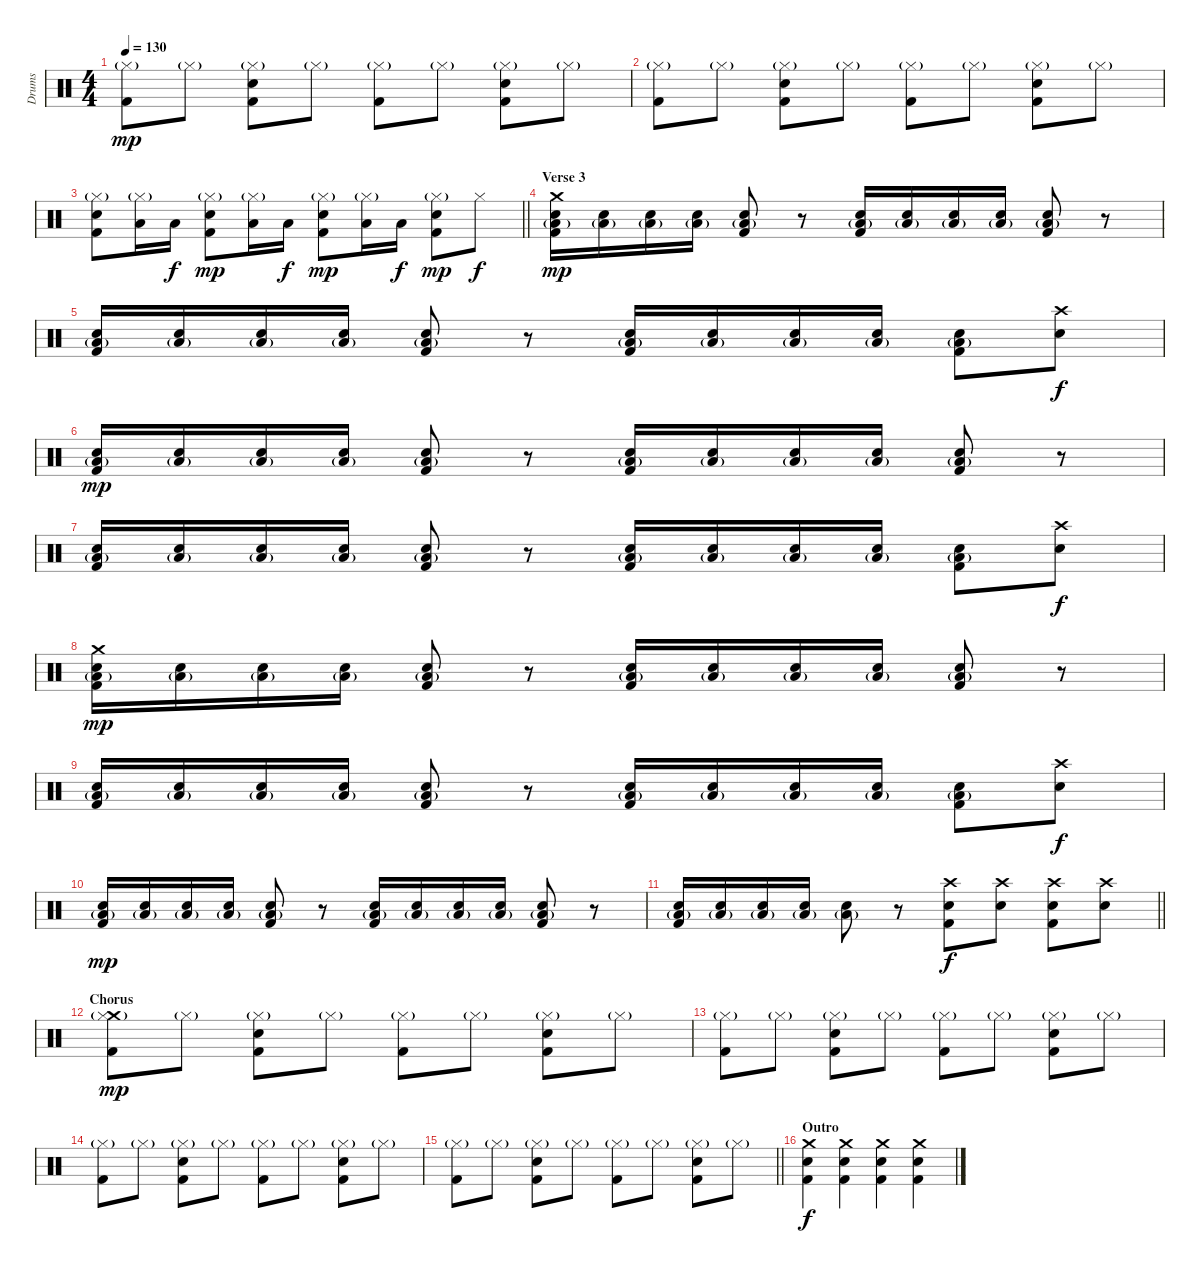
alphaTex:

\track ("Drums" "Drums") {instrument percussion}
\staff {score}
\articulation defaults
\ts (4 4)
\tempo 130
\clef neutral
\ks c
("Hi-Hat (closed)"{g} "Kick (hit) 2").8{dy mp} "Hi-Hat (closed)"{g}.8 ("Hi-Hat (closed)"{g} "Electric Snare (hit)" "Kick (hit) 2").8 "Hi-Hat (closed)"{g}.8 ("Hi-Hat (closed)"{g} "Kick (hit) 2").8 "Hi-Hat (closed)"{g}.8 ("Hi-Hat (closed)"{g} "Electric Snare (hit)" "Kick (hit) 2").8 "Hi-Hat (closed)"{g}.8 |
("Hi-Hat (closed)"{g} "Kick (hit) 2").8 "Hi-Hat (closed)"{g}.8 ("Hi-Hat (closed)"{g} "Electric Snare (hit)" "Kick (hit) 2").8 "Hi-Hat (closed)"{g}.8 ("Hi-Hat (closed)"{g} "Kick (hit) 2").8 "Hi-Hat (closed)"{g}.8 ("Hi-Hat (closed)"{g} "Electric Snare (hit)" "Kick (hit) 2").8 "Hi-Hat (closed)"{g}.8 |
\barLineRight lightlight
("Hi-Hat (closed)"{g} "Electric Snare (hit)" "Kick (hit) 2").8 ("Hi-Hat (closed)"{g} "Low Floor Tom (hit)").16 "Low Floor Tom (hit)".16{dy f} ("Hi-Hat (closed)"{g} "Electric Snare (hit)" "Kick (hit) 2").8{dy mp} ("Hi-Hat (closed)"{g} "Low Floor Tom (hit)").16 "Low Floor Tom (hit)".16{dy f} ("Hi-Hat (closed)"{g} "Electric Snare (hit)" "Kick (hit) 2").8{dy mp} ("Hi-Hat (closed)"{g} "Low Floor Tom (hit)").16 "Low Floor Tom (hit)".16{dy f} ("Hi-Hat (closed)"{g} "Electric Snare (hit)" "Kick (hit) 2").8{dy mp} "Hi-Hat (closed)".8{dy f} |
\section ("" "Verse 3")
("Crash medium (hit)" "Low Floor Tom (hit)"{g} "Electric Snare (hit)" "Kick (hit) 2").16{dy mp} ("Low Floor Tom (hit)"{g} "Electric Snare (hit)").16 ("Low Floor Tom (hit)"{g} "Electric Snare (hit)").16 ("Low Floor Tom (hit)"{g} "Electric Snare (hit)").16 ("Low Floor Tom (hit)"{g} "Electric Snare (hit)" "Kick (hit) 2").8 r.8 ("Low Floor Tom (hit)"{g} "Electric Snare (hit)" "Kick (hit) 2").16 ("Low Floor Tom (hit)"{g} "Electric Snare (hit)").16 ("Low Floor Tom (hit)"{g} "Electric Snare (hit)").16 ("Low Floor Tom (hit)"{g} "Electric Snare (hit)").16 ("Low Floor Tom (hit)"{g} "Electric Snare (hit)" "Kick (hit) 2").8 r.8 |
("Low Floor Tom (hit)"{g} "Electric Snare (hit)" "Kick (hit) 2").16 ("Low Floor Tom (hit)"{g} "Electric Snare (hit)").16 ("Low Floor Tom (hit)"{g} "Electric Snare (hit)").16 ("Low Floor Tom (hit)"{g} "Electric Snare (hit)").16 ("Low Floor Tom (hit)"{g} "Electric Snare (hit)" "Kick (hit) 2").8 r.8 ("Low Floor Tom (hit)"{g} "Electric Snare (hit)" "Kick (hit) 2").16 ("Low Floor Tom (hit)"{g} "Electric Snare (hit)").16 ("Low Floor Tom (hit)"{g} "Electric Snare (hit)").16 ("Low Floor Tom (hit)"{g} "Electric Snare (hit)").16 ("Low Floor Tom (hit)"{g} "Electric Snare (hit)" "Kick (hit) 2").8 ("Crash high (hit)" "Electric Snare (hit)").8{dy f} |
("Low Floor Tom (hit)"{g} "Electric Snare (hit)" "Kick (hit) 2").16{dy mp} ("Low Floor Tom (hit)"{g} "Electric Snare (hit)").16 ("Low Floor Tom (hit)"{g} "Electric Snare (hit)").16 ("Low Floor Tom (hit)"{g} "Electric Snare (hit)").16 ("Low Floor Tom (hit)"{g} "Electric Snare (hit)" "Kick (hit) 2").8 r.8 ("Low Floor Tom (hit)"{g} "Electric Snare (hit)" "Kick (hit) 2").16 ("Low Floor Tom (hit)"{g} "Electric Snare (hit)").16 ("Low Floor Tom (hit)"{g} "Electric Snare (hit)").16 ("Low Floor Tom (hit)"{g} "Electric Snare (hit)").16 ("Low Floor Tom (hit)"{g} "Electric Snare (hit)" "Kick (hit) 2").8 r.8 |
("Low Floor Tom (hit)"{g} "Electric Snare (hit)" "Kick (hit) 2").16 ("Low Floor Tom (hit)"{g} "Electric Snare (hit)").16 ("Low Floor Tom (hit)"{g} "Electric Snare (hit)").16 ("Low Floor Tom (hit)"{g} "Electric Snare (hit)").16 ("Low Floor Tom (hit)"{g} "Electric Snare (hit)" "Kick (hit) 2").8 r.8 ("Low Floor Tom (hit)"{g} "Electric Snare (hit)" "Kick (hit) 2").16 ("Low Floor Tom (hit)"{g} "Electric Snare (hit)").16 ("Low Floor Tom (hit)"{g} "Electric Snare (hit)").16 ("Low Floor Tom (hit)"{g} "Electric Snare (hit)").16 ("Low Floor Tom (hit)"{g} "Electric Snare (hit)" "Kick (hit) 2").8 ("Crash high (hit)" "Electric Snare (hit)").8{dy f} |
("Crash medium (hit)" "Low Floor Tom (hit)"{g} "Electric Snare (hit)" "Kick (hit) 2").16{dy mp} ("Low Floor Tom (hit)"{g} "Electric Snare (hit)").16 ("Low Floor Tom (hit)"{g} "Electric Snare (hit)").16 ("Low Floor Tom (hit)"{g} "Electric Snare (hit)").16 ("Low Floor Tom (hit)"{g} "Electric Snare (hit)" "Kick (hit) 2").8 r.8 ("Low Floor Tom (hit)"{g} "Electric Snare (hit)" "Kick (hit) 2").16 ("Low Floor Tom (hit)"{g} "Electric Snare (hit)").16 ("Low Floor Tom (hit)"{g} "Electric Snare (hit)").16 ("Low Floor Tom (hit)"{g} "Electric Snare (hit)").16 ("Low Floor Tom (hit)"{g} "Electric Snare (hit)" "Kick (hit) 2").8 r.8 |
("Low Floor Tom (hit)"{g} "Electric Snare (hit)" "Kick (hit) 2").16 ("Low Floor Tom (hit)"{g} "Electric Snare (hit)").16 ("Low Floor Tom (hit)"{g} "Electric Snare (hit)").16 ("Low Floor Tom (hit)"{g} "Electric Snare (hit)").16 ("Low Floor Tom (hit)"{g} "Electric Snare (hit)" "Kick (hit) 2").8 r.8 ("Low Floor Tom (hit)"{g} "Electric Snare (hit)" "Kick (hit) 2").16 ("Low Floor Tom (hit)"{g} "Electric Snare (hit)").16 ("Low Floor Tom (hit)"{g} "Electric Snare (hit)").16 ("Low Floor Tom (hit)"{g} "Electric Snare (hit)").16 ("Low Floor Tom (hit)"{g} "Electric Snare (hit)" "Kick (hit) 2").8 ("Crash high (hit)" "Electric Snare (hit)").8{dy f} |
("Low Floor Tom (hit)"{g} "Electric Snare (hit)" "Kick (hit) 2").16{dy mp} ("Low Floor Tom (hit)"{g} "Electric Snare (hit)").16 ("Low Floor Tom (hit)"{g} "Electric Snare (hit)").16 ("Low Floor Tom (hit)"{g} "Electric Snare (hit)").16 ("Low Floor Tom (hit)"{g} "Electric Snare (hit)" "Kick (hit) 2").8 r.8 ("Low Floor Tom (hit)"{g} "Electric Snare (hit)" "Kick (hit) 2").16 ("Low Floor Tom (hit)"{g} "Electric Snare (hit)").16 ("Low Floor Tom (hit)"{g} "Electric Snare (hit)").16 ("Low Floor Tom (hit)"{g} "Electric Snare (hit)").16 ("Low Floor Tom (hit)"{g} "Electric Snare (hit)" "Kick (hit) 2").8 r.8 |
\barLineRight lightlight
("Low Floor Tom (hit)"{g} "Electric Snare (hit)" "Kick (hit) 2").16 ("Low Floor Tom (hit)"{g} "Electric Snare (hit)").16 ("Low Floor Tom (hit)"{g} "Electric Snare (hit)").16 ("Low Floor Tom (hit)"{g} "Electric Snare (hit)").16 ("Low Floor Tom (hit)"{g} "Electric Snare (hit)").8 r.8 ("Crash high (hit)" "Electric Snare (hit)" "Kick (hit) 2").8{dy f} ("Crash high (hit)" "Electric Snare (hit)").8 ("Crash high (hit)" "Electric Snare (hit)" "Kick (hit) 2").8 ("Crash high (hit)" "Electric Snare (hit)").8 |
\section ("" "Chorus")
("Crash medium (hit)" "Hi-Hat (closed)"{g} "Kick (hit) 2").8{dy mp} "Hi-Hat (closed)"{g}.8 ("Hi-Hat (closed)"{g} "Electric Snare (hit)" "Kick (hit) 2").8 "Hi-Hat (closed)"{g}.8 ("Hi-Hat (closed)"{g} "Kick (hit) 2").8 "Hi-Hat (closed)"{g}.8 ("Hi-Hat (closed)"{g} "Electric Snare (hit)" "Kick (hit) 2").8 "Hi-Hat (closed)"{g}.8 |
("Hi-Hat (closed)"{g} "Kick (hit) 2").8 "Hi-Hat (closed)"{g}.8 ("Hi-Hat (closed)"{g} "Electric Snare (hit)" "Kick (hit) 2").8 "Hi-Hat (closed)"{g}.8 ("Hi-Hat (closed)"{g} "Kick (hit) 2").8 "Hi-Hat (closed)"{g}.8 ("Hi-Hat (closed)"{g} "Electric Snare (hit)" "Kick (hit) 2").8 "Hi-Hat (closed)"{g}.8 |
("Hi-Hat (closed)"{g} "Kick (hit) 2").8 "Hi-Hat (closed)"{g}.8 ("Hi-Hat (closed)"{g} "Electric Snare (hit)" "Kick (hit) 2").8 "Hi-Hat (closed)"{g}.8 ("Hi-Hat (closed)"{g} "Kick (hit) 2").8 "Hi-Hat (closed)"{g}.8 ("Hi-Hat (closed)"{g} "Electric Snare (hit)" "Kick (hit) 2").8 "Hi-Hat (closed)"{g}.8 |
\barLineRight lightlight
("Hi-Hat (closed)"{g} "Kick (hit) 2").8 "Hi-Hat (closed)"{g}.8 ("Hi-Hat (closed)"{g} "Electric Snare (hit)" "Kick (hit) 2").8 "Hi-Hat (closed)"{g}.8 ("Hi-Hat (closed)"{g} "Kick (hit) 2").8 "Hi-Hat (closed)"{g}.8 ("Hi-Hat (closed)"{g} "Electric Snare (hit)" "Kick (hit) 2").8 "Hi-Hat (closed)"{g}.8 |
\section ("" "Outro")
("Crash medium (hit)" "Electric Snare (hit)" "Kick (hit) 2").4{dy f} ("Crash medium (hit)" "Electric Snare (hit)" "Kick (hit) 2").4 ("Crash medium (hit)" "Electric Snare (hit)" "Kick (hit) 2").4 ("Crash medium (hit)" "Electric Snare (hit)" "Kick (hit) 2").4
